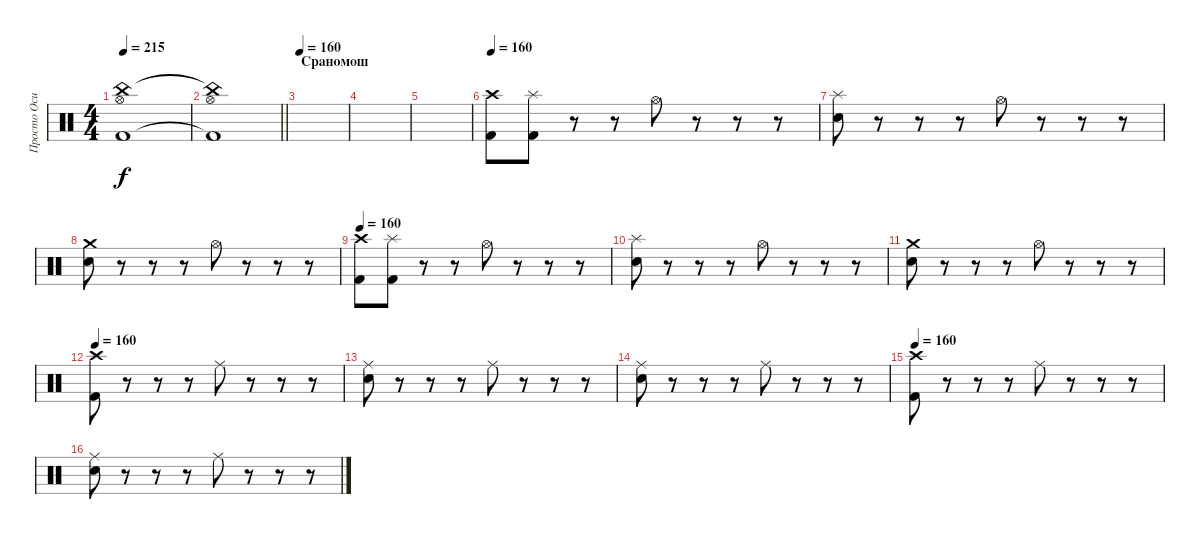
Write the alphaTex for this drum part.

\track ("Просто Осип" "Просто Оси") {instrument percussion}
\staff {score}
\articulation defaults
\ts (4 4)
\tempo 215
\clef neutral
\ks c
("China (hit)"{t} "Hi-Hat (open)" "Kick (hit) 2"{t}).1{dy f} |
\barLineRight lightlight
("China (hit)"{t} "Hi-Hat (open)" "Kick (hit) 2"{t}).1 |
\section ("" "Сраномош")
\tempo 160
|
|
|
\tempo 160
("Kick (hit) 2" "Crash high (hit)").8 ("Kick (hit) 2" "Splash (hit)").8 r.8 r.8 "Hi-Hat (open)".8 r.8 r.8 r.8 |
("Electric Snare (hit)" "Splash (hit)").8 r.8 r.8 r.8 "Hi-Hat (open)".8 r.8 r.8 r.8 |
("Electric Snare (hit)" "Crash medium (hit)").8 r.8 r.8 r.8 "Hi-Hat (open)".8 r.8 r.8 r.8 |
\tempo 160
("Kick (hit) 2" "Crash high (hit)").8 ("Kick (hit) 2" "Splash (hit)").8 r.8 r.8 "Hi-Hat (open)".8 r.8 r.8 r.8 |
("Electric Snare (hit)" "Splash (hit)").8 r.8 r.8 r.8 "Hi-Hat (open)".8 r.8 r.8 r.8 |
("Electric Snare (hit)" "Crash medium (hit)").8 r.8 r.8 r.8 "Hi-Hat (open)".8 r.8 r.8 r.8 |
\tempo 160
("Kick (hit) 2" "Crash high (hit)").8 r.8 r.8 r.8 "Ride (middle)".8 r.8 r.8 r.8 |
("Electric Snare (hit)" "Ride (middle)").8 r.8 r.8 r.8 "Ride (middle)".8 r.8 r.8 r.8 |
("Electric Snare (hit)" "Ride (middle)").8 r.8 r.8 r.8 "Ride (middle)".8 r.8 r.8 r.8 |
\tempo 160
("Kick (hit) 2" "Crash high (hit)").8 r.8 r.8 r.8 "Ride (middle)".8 r.8 r.8 r.8 |
("Electric Snare (hit)" "Ride (middle)").8 r.8 r.8 r.8 "Ride (middle)".8 r.8 r.8 r.8
